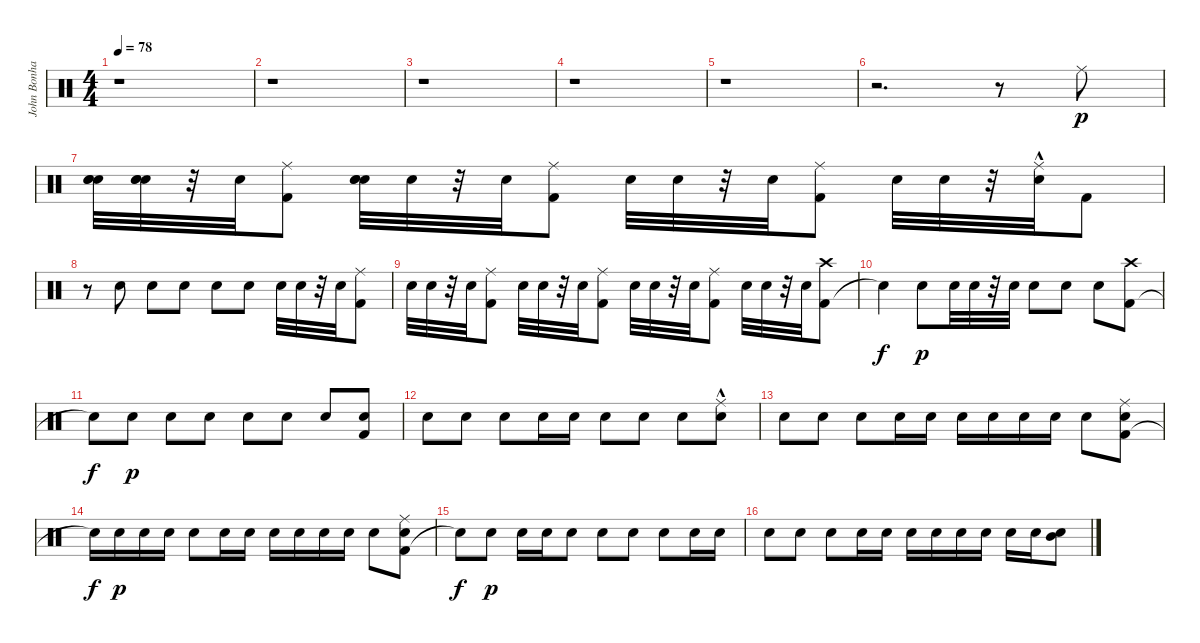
\track ("John Bonham (Drums)" "John Bonha") {instrument percussion}
\staff {score}
\articulation defaults
\ts (4 4)
\tempo 78
\clef neutral
\ks c
r.1{dy p} |
r.1 |
r.1 |
r.1 |
r.1 |
r.2{d} r.8 "Ride (middle)".8 |
("Snare (hit) 2" "Snare (hit) 2" "Snare (hit) 2").32 ("Snare (hit) 2" "Snare (hit) 2" "Snare (hit) 2").32 r.32 "Snare (hit) 2".32 ("Kick (hit) 2" "Ride (middle)").8 ("Snare (hit) 2" "Snare (hit) 2" "Snare (hit) 2").32 "Snare (hit) 2".32 r.32 "Snare (hit) 2".32 ("Kick (hit) 2" "Ride (middle)").8 "Snare (hit) 2".32 "Snare (hit) 2".32 r.32 "Snare (hit) 2".32 ("Kick (hit) 2" "Ride (middle)").8 "Snare (hit) 2".32 "Snare (hit) 2".32 r.32 ("Snare (hit) 2" "Ride (middle)"{hac}).32 "Kick (hit) 2".8 |
r.8 "Snare (hit) 2".8 "Snare (hit) 2".8 "Snare (hit) 2".8 "Snare (hit) 2".8 "Snare (hit) 2".8 "Snare (hit) 2".32 "Snare (hit) 2".32 r.32 "Snare (hit) 2".32 ("Kick (hit) 2" "Ride (middle)").8 |
"Snare (hit) 2".32 "Snare (hit) 2".32 r.32 "Snare (hit) 2".32 ("Kick (hit) 2" "Ride (middle)").8 "Snare (hit) 2".32 "Snare (hit) 2".32 r.32 "Snare (hit) 2".32 ("Kick (hit) 2" "Ride (middle)").8 "Snare (hit) 2".32 "Snare (hit) 2".32 r.32 "Snare (hit) 2".32 ("Kick (hit) 2" "Ride (middle)").8 "Snare (hit) 2".32 "Snare (hit) 2".32 r.32 "Snare (hit) 2".32 ("Kick (hit) 2" "Crash high (hit)").8 |
"Snare (hit)"{t}.4{dy f} "Snare (hit) 2".8{dy p} "Snare (hit) 2".32 "Snare (hit) 2".32 r.32 "Snare (hit) 2".32 "Snare (hit) 2".8 "Snare (hit) 2".8 "Snare (hit) 2".8 ("Kick (hit) 2" "Crash high (hit)").8 |
"Snare (hit)"{t}.8{dy f} "Snare (hit) 2".8{dy p} "Snare (hit) 2".8 "Snare (hit) 2".8 "Snare (hit) 2".8 "Snare (hit) 2".8 "Snare (hit) 2".8 ("Kick (hit) 2" "Snare (hit) 2").8 |
"Snare (hit) 2".8 "Snare (hit) 2".8 "Snare (hit) 2".8 "Snare (hit) 2".16 "Snare (hit) 2".16 "Snare (hit) 2".8 "Snare (hit) 2".8 "Snare (hit) 2".8 ("Snare (hit) 2" "Ride (middle)"{hac}).8 |
"Snare (hit) 2".8 "Snare (hit) 2".8 "Snare (hit) 2".8 "Snare (hit) 2".16 "Snare (hit) 2".16 "Snare (hit) 2".16 "Snare (hit) 2".16 "Snare (hit) 2".16 "Snare (hit) 2".16 "Snare (hit) 2".8 ("Kick (hit) 2" "Snare (hit) 2" "Ride (middle)").8 |
"Snare (hit)"{t}.16{dy f} "Snare (hit) 2".16{dy p} "Snare (hit) 2".16 "Snare (hit) 2".16 "Snare (hit) 2".8 "Snare (hit) 2".16 "Snare (hit) 2".16 "Snare (hit) 2".16 "Snare (hit) 2".16 "Snare (hit) 2".16 "Snare (hit) 2".16 "Snare (hit) 2".8 ("Kick (hit) 2" "Snare (hit) 2" "Ride (middle)").8 |
"Snare (hit)"{t}.8{dy f} "Snare (hit) 2".8{dy p} "Snare (hit) 2".16 "Snare (hit) 2".16 "Snare (hit) 2".8 "Snare (hit) 2".8 "Snare (hit) 2".8 "Snare (hit) 2".8 "Snare (hit) 2".16 "Snare (hit) 2".16 |
"Snare (hit) 2".8 "Snare (hit) 2".8 "Snare (hit) 2".8 "Snare (hit) 2".16 "Snare (hit) 2".16 "Snare (hit) 2".16 "Snare (hit) 2".16 "Snare (hit) 2".16 "Snare (hit) 2".16 "Snare (hit) 2".16 "Snare (hit) 2".16 ("Snare (hit) 2" "Mid Tom (hit)").8
